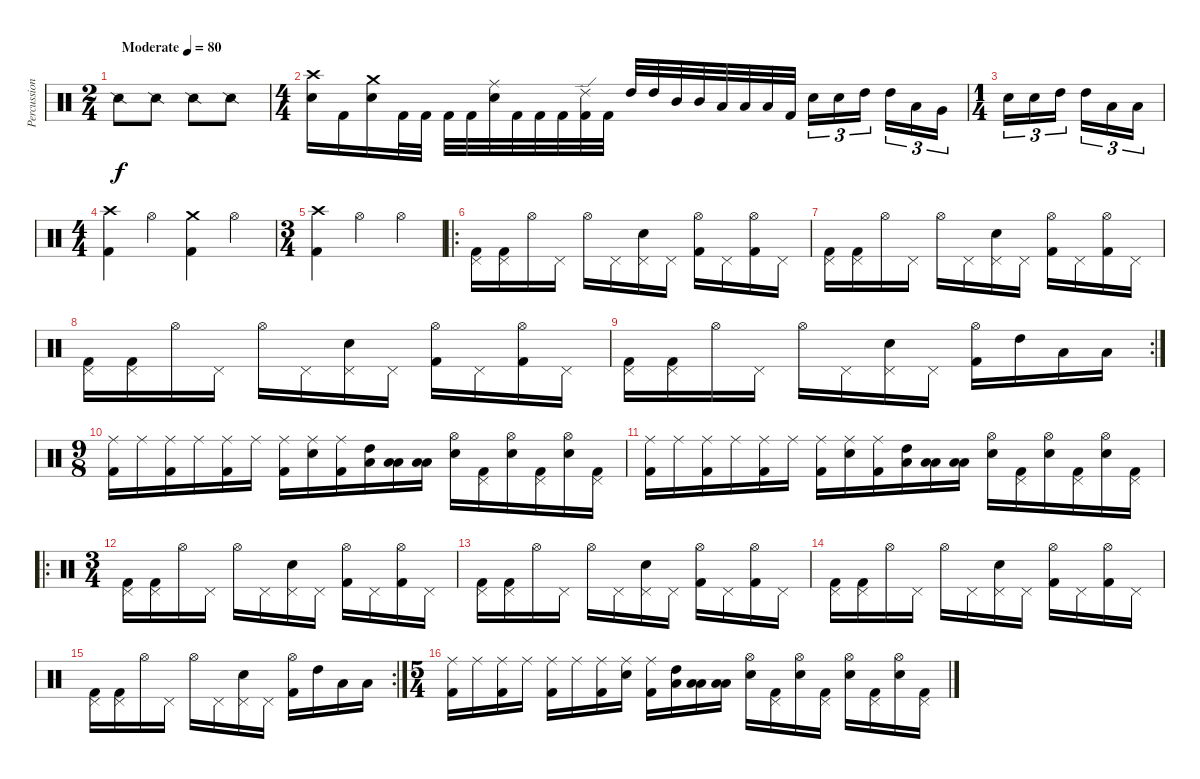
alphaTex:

\track ("Percussion" "Percussion") {instrument percussion}
\staff {score}
\articulation defaults
\ts (2 4)
\tempo (80 "Moderate")
\clef neutral
\ks c "Snare (side stick) 2".8{dy f} "Snare (side stick) 2".8 "Snare (side stick) 2".8 "Snare (side stick) 2".8
|
\ts (4 4)
("Electric Snare (hit)" "Crash high (hit)").16 "Kick (hit) 2".16 ("Electric Snare (hit)" "Crash medium (hit)").16 "Kick (hit) 2".32 "Kick (hit) 2".32 "Kick (hit) 2".32 "Kick (hit) 2".32 ("Electric Snare (hit)" "Ride (middle)").32 "Kick (hit) 2".32 "Kick (hit) 2".32 "Kick (hit) 2".32 ("Kick (hit) 2" "Ride (edge) 2").32 "Kick (hit) 2".32 "High Tom (hit)".32 "High Tom (hit)".32 "Mid Tom (hit)".32 "Mid Tom (hit)".32 "Low Tom (hit)".32 "Low Tom (hit)".32 "Low Floor Tom (hit)".32 "Kick (hit) 2".32 "Electric Snare (hit)".16{tu (3 2)} "Electric Snare (hit)".16{tu (3 2)} "High Tom (hit)".16{tu (3 2) beam splitsecondary} "High Tom (hit)".16{tu (3 2)} "Low Tom (hit)".16{tu (3 2)} "Very Low Tom (hit)".16{tu (3 2)} |
\ts (1 4)
"Electric Snare (hit)".16{tu (3 2)} "Electric Snare (hit)".16{tu (3 2)} "High Tom (hit)".16{tu (3 2) beam splitsecondary} "High Tom (hit)".16{tu (3 2)} "Low Tom (hit)".16{tu (3 2)} "Low Floor Tom (hit)".16{tu (3 2)} |
\ts (4 4)
("Kick (hit) 2" "Crash high (hit)").4 "Hi-Hat (open)".4 ("Kick (hit) 2" "Crash medium (hit)").4 "Hi-Hat (open)".4 |
\ts (3 4)
("Kick (hit) 2" "Crash high (hit)").4 "Hi-Hat (open)".4 "Hi-Hat (open)".4 |
\ro
("Pedal Hi-Hat (hit)" "Kick (hit) 2").16 ("Pedal Hi-Hat (hit)" "Kick (hit) 2").16 "Hi-Hat (open)".16 "Pedal Hi-Hat (hit)".16 "Hi-Hat (open)".16 "Pedal Hi-Hat (hit)".16 ("Pedal Hi-Hat (hit)" "Electric Snare (hit)").16 "Pedal Hi-Hat (hit)".16 ("Hi-Hat (open)" "Kick (hit) 2").16 "Pedal Hi-Hat (hit)".16 ("Hi-Hat (open)" "Kick (hit) 2").16 "Pedal Hi-Hat (hit)".16 |
("Pedal Hi-Hat (hit)" "Kick (hit) 2").16 ("Pedal Hi-Hat (hit)" "Kick (hit) 2").16 "Hi-Hat (open)".16 "Pedal Hi-Hat (hit)".16 "Hi-Hat (open)".16 "Pedal Hi-Hat (hit)".16 ("Pedal Hi-Hat (hit)" "Electric Snare (hit)").16 "Pedal Hi-Hat (hit)".16 ("Hi-Hat (open)" "Kick (hit) 2").16 "Pedal Hi-Hat (hit)".16 ("Hi-Hat (open)" "Kick (hit) 2").16 "Pedal Hi-Hat (hit)".16 |
("Pedal Hi-Hat (hit)" "Kick (hit) 2").16 ("Pedal Hi-Hat (hit)" "Kick (hit) 2").16 "Hi-Hat (open)".16 "Pedal Hi-Hat (hit)".16 "Hi-Hat (open)".16 "Pedal Hi-Hat (hit)".16 ("Pedal Hi-Hat (hit)" "Electric Snare (hit)").16 "Pedal Hi-Hat (hit)".16 ("Hi-Hat (open)" "Kick (hit) 2").16 "Pedal Hi-Hat (hit)".16 ("Hi-Hat (open)" "Kick (hit) 2").16 "Pedal Hi-Hat (hit)".16 |
\rc 2
("Pedal Hi-Hat (hit)" "Kick (hit) 2").16 ("Pedal Hi-Hat (hit)" "Kick (hit) 2").16 "Hi-Hat (open)".16 "Pedal Hi-Hat (hit)".16 "Hi-Hat (open)".16 "Pedal Hi-Hat (hit)".16 ("Pedal Hi-Hat (hit)" "Electric Snare (hit)").16 "Pedal Hi-Hat (hit)".16 ("Hi-Hat (open)" "Kick (hit) 2").16 "High Tom (hit)".16 "Low Tom (hit)".16 "Low Floor Tom (hit)".16 |
\ts (9 8)
("Ride (middle)" "Kick (hit) 2").16 "Ride (middle)".16 ("Ride (middle)" "Kick (hit) 2").16 "Ride (middle)".16 ("Ride (middle)" "Kick (hit) 2").16 "Ride (middle)".16 ("Ride (middle)" "Kick (hit) 2").16 ("Ride (middle)" "Electric Snare (hit)").16 ("Ride (middle)" "Kick (hit) 2").16 ("High Tom (hit)" "Low Tom (hit)").16 ("Low Tom (hit)" "Low Floor Tom (hit)").16 ("Low Floor Tom (hit)" "Low Floor Tom (hit)").16 ("Hi-Hat (open)" "Electric Snare (hit)").16 ("Pedal Hi-Hat (hit)" "Kick (hit) 2").16 ("Hi-Hat (open)" "Electric Snare (hit)").16 ("Pedal Hi-Hat (hit)" "Kick (hit) 2").16 ("Hi-Hat (open)" "Electric Snare (hit)").16 ("Pedal Hi-Hat (hit)" "Kick (hit) 2").16 |
("Ride (middle)" "Kick (hit) 2").16 "Ride (middle)".16 ("Ride (middle)" "Kick (hit) 2").16 "Ride (middle)".16 ("Ride (middle)" "Kick (hit) 2").16 "Ride (middle)".16 ("Ride (middle)" "Kick (hit) 2").16 ("Ride (middle)" "Electric Snare (hit)").16 ("Ride (middle)" "Kick (hit) 2").16 ("High Tom (hit)" "Low Tom (hit)").16 ("Low Tom (hit)" "Low Floor Tom (hit)").16 ("Low Floor Tom (hit)" "Low Floor Tom (hit)").16 ("Hi-Hat (open)" "Electric Snare (hit)").16 ("Pedal Hi-Hat (hit)" "Kick (hit) 2").16 ("Hi-Hat (open)" "Electric Snare (hit)").16 ("Pedal Hi-Hat (hit)" "Kick (hit) 2").16 ("Hi-Hat (open)" "Electric Snare (hit)").16 ("Pedal Hi-Hat (hit)" "Kick (hit) 2").16 |
\ro
\ts (3 4)
("Pedal Hi-Hat (hit)" "Kick (hit) 2").16 ("Pedal Hi-Hat (hit)" "Kick (hit) 2").16 "Hi-Hat (open)".16 "Pedal Hi-Hat (hit)".16 "Hi-Hat (open)".16 "Pedal Hi-Hat (hit)".16 ("Pedal Hi-Hat (hit)" "Electric Snare (hit)").16 "Pedal Hi-Hat (hit)".16 ("Hi-Hat (open)" "Kick (hit) 2").16 "Pedal Hi-Hat (hit)".16 ("Hi-Hat (open)" "Kick (hit) 2").16 "Pedal Hi-Hat (hit)".16 |
("Pedal Hi-Hat (hit)" "Kick (hit) 2").16 ("Pedal Hi-Hat (hit)" "Kick (hit) 2").16 "Hi-Hat (open)".16 "Pedal Hi-Hat (hit)".16 "Hi-Hat (open)".16 "Pedal Hi-Hat (hit)".16 ("Pedal Hi-Hat (hit)" "Electric Snare (hit)").16 "Pedal Hi-Hat (hit)".16 ("Hi-Hat (open)" "Kick (hit) 2").16 "Pedal Hi-Hat (hit)".16 ("Hi-Hat (open)" "Kick (hit) 2").16 "Pedal Hi-Hat (hit)".16 |
("Pedal Hi-Hat (hit)" "Kick (hit) 2").16 ("Pedal Hi-Hat (hit)" "Kick (hit) 2").16 "Hi-Hat (open)".16 "Pedal Hi-Hat (hit)".16 "Hi-Hat (open)".16 "Pedal Hi-Hat (hit)".16 ("Pedal Hi-Hat (hit)" "Electric Snare (hit)").16 "Pedal Hi-Hat (hit)".16 ("Hi-Hat (open)" "Kick (hit) 2").16 "Pedal Hi-Hat (hit)".16 ("Hi-Hat (open)" "Kick (hit) 2").16 "Pedal Hi-Hat (hit)".16 |
\rc 2
("Pedal Hi-Hat (hit)" "Kick (hit) 2").16 ("Pedal Hi-Hat (hit)" "Kick (hit) 2").16 "Hi-Hat (open)".16 "Pedal Hi-Hat (hit)".16 "Hi-Hat (open)".16 "Pedal Hi-Hat (hit)".16 ("Pedal Hi-Hat (hit)" "Electric Snare (hit)").16 "Pedal Hi-Hat (hit)".16 ("Hi-Hat (open)" "Kick (hit) 2").16 "High Tom (hit)".16 "Low Tom (hit)".16 "Low Floor Tom (hit)".16 |
\ts (5 4)
("Ride (middle)" "Kick (hit) 2").16 "Ride (middle)".16 ("Ride (middle)" "Kick (hit) 2").16 "Ride (middle)".16 ("Ride (middle)" "Kick (hit) 2").16 "Ride (middle)".16 ("Ride (middle)" "Kick (hit) 2").16 ("Ride (middle)" "Electric Snare (hit)").16 ("Ride (middle)" "Kick (hit) 2").16 ("High Tom (hit)" "Low Tom (hit)").16 ("Low Tom (hit)" "Low Floor Tom (hit)").16 ("Low Floor Tom (hit)" "Low Floor Tom (hit)").16 ("Hi-Hat (open)" "Electric Snare (hit)").16 ("Pedal Hi-Hat (hit)" "Kick (hit) 2").16 ("Hi-Hat (open)" "Electric Snare (hit)").16 ("Pedal Hi-Hat (hit)" "Kick (hit) 2").16 ("Hi-Hat (open)" "Electric Snare (hit)").16 ("Pedal Hi-Hat (hit)" "Kick (hit) 2").16 ("Hi-Hat (open)" "Electric Snare (hit)").16 ("Pedal Hi-Hat (hit)" "Kick (hit) 2").16
